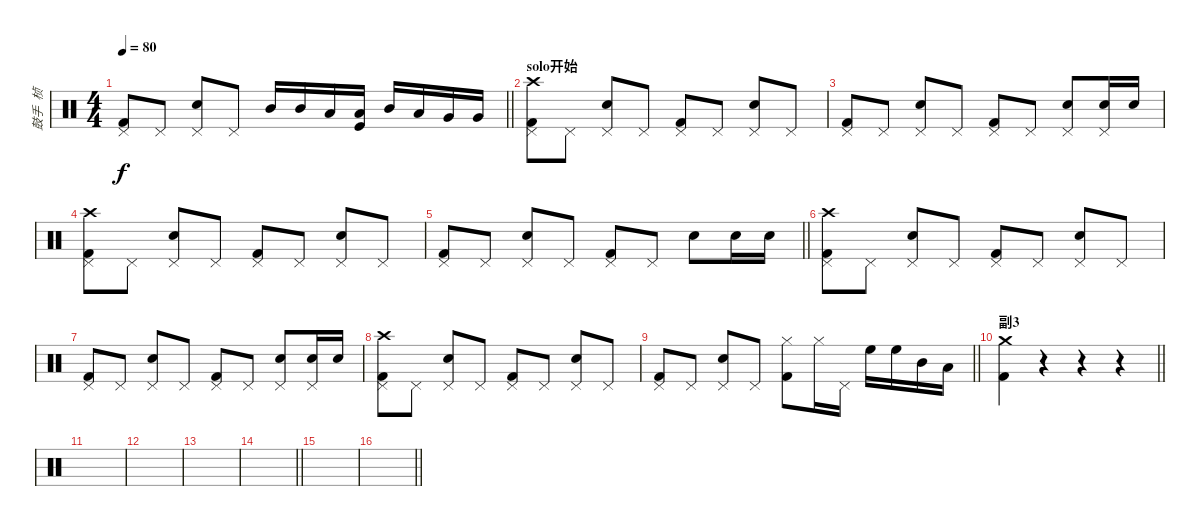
\track ("鼓手  桢" "鼓手  桢") {instrument percussion}
\staff {score}
\articulation defaults
\ts (4 4)
\tempo 80
\clef neutral
\barLineRight lightlight
\ks c
("Pedal Hi-Hat (hit)" "Kick (hit) 2").8{dy f} "Pedal Hi-Hat (hit)".8 ("Pedal Hi-Hat (hit)" "Snare (hit) 2").8 "Pedal Hi-Hat (hit)".8 "Mid Tom (hit)".16 "Mid Tom (hit)".16 "Low Tom (hit)".16 ("Low Tom (hit)" "Kick (hit)").16 "Mid Tom (hit)".16 "Low Tom (hit)".16 "Very Low Tom (hit)".16 "Very Low Tom (hit)".16 |
\section ("" "solo开始")
("Pedal Hi-Hat (hit)" "Kick (hit) 2" "Crash high (hit)").8 "Pedal Hi-Hat (hit)".8 ("Pedal Hi-Hat (hit)" "Snare (hit) 2").8 "Pedal Hi-Hat (hit)".8 ("Pedal Hi-Hat (hit)" "Kick (hit) 2").8 "Pedal Hi-Hat (hit)".8 ("Pedal Hi-Hat (hit)" "Snare (hit) 2").8 "Pedal Hi-Hat (hit)".8 |
("Pedal Hi-Hat (hit)" "Kick (hit) 2").8 "Pedal Hi-Hat (hit)".8 ("Pedal Hi-Hat (hit)" "Snare (hit) 2").8 "Pedal Hi-Hat (hit)".8 ("Pedal Hi-Hat (hit)" "Kick (hit) 2").8 "Pedal Hi-Hat (hit)".8 ("Pedal Hi-Hat (hit)" "Snare (hit) 2").8 ("Pedal Hi-Hat (hit)" "Snare (hit) 2").16 "Snare (hit) 2".16 |
("Pedal Hi-Hat (hit)" "Kick (hit) 2" "Crash high (hit)").8 "Pedal Hi-Hat (hit)".8 ("Pedal Hi-Hat (hit)" "Snare (hit) 2").8 "Pedal Hi-Hat (hit)".8 ("Pedal Hi-Hat (hit)" "Kick (hit) 2").8 "Pedal Hi-Hat (hit)".8 ("Pedal Hi-Hat (hit)" "Snare (hit) 2").8 "Pedal Hi-Hat (hit)".8 |
\barLineRight lightlight
("Pedal Hi-Hat (hit)" "Kick (hit) 2").8 "Pedal Hi-Hat (hit)".8 ("Pedal Hi-Hat (hit)" "Snare (hit) 2").8 "Pedal Hi-Hat (hit)".8 ("Pedal Hi-Hat (hit)" "Kick (hit) 2").8 "Pedal Hi-Hat (hit)".8 "Snare (hit) 2".8 "Snare (hit) 2".16 "Snare (hit) 2".16 |
("Pedal Hi-Hat (hit)" "Kick (hit) 2" "Crash high (hit)").8 "Pedal Hi-Hat (hit)".8 ("Pedal Hi-Hat (hit)" "Snare (hit) 2").8 "Pedal Hi-Hat (hit)".8 ("Pedal Hi-Hat (hit)" "Kick (hit) 2").8 "Pedal Hi-Hat (hit)".8 ("Pedal Hi-Hat (hit)" "Snare (hit) 2").8 "Pedal Hi-Hat (hit)".8 |
("Pedal Hi-Hat (hit)" "Kick (hit) 2").8 "Pedal Hi-Hat (hit)".8 ("Pedal Hi-Hat (hit)" "Snare (hit) 2").8 "Pedal Hi-Hat (hit)".8 ("Pedal Hi-Hat (hit)" "Kick (hit) 2").8 "Pedal Hi-Hat (hit)".8 ("Pedal Hi-Hat (hit)" "Snare (hit) 2").8 ("Pedal Hi-Hat (hit)" "Snare (hit) 2").16 "Snare (hit) 2".16 |
("Pedal Hi-Hat (hit)" "Kick (hit) 2" "Crash high (hit)").8 "Pedal Hi-Hat (hit)".8 ("Pedal Hi-Hat (hit)" "Snare (hit) 2").8 "Pedal Hi-Hat (hit)".8 ("Pedal Hi-Hat (hit)" "Kick (hit) 2").8 "Pedal Hi-Hat (hit)".8 ("Pedal Hi-Hat (hit)" "Snare (hit) 2").8 "Pedal Hi-Hat (hit)".8 |
\barLineRight lightlight
("Pedal Hi-Hat (hit)" "Kick (hit) 2").8 "Pedal Hi-Hat (hit)".8 ("Pedal Hi-Hat (hit)" "Snare (hit) 2").8 "Pedal Hi-Hat (hit)".8 ("Hi-Hat (closed)" "Kick (hit) 2").8 "Hi-Hat (closed)".16 "Pedal Hi-Hat (hit)".16 "High Floor Tom (hit)".16 "High Floor Tom (hit)".16 "Mid Tom (hit)".16 "Low Tom (hit)".16 |
\section ("" "副3")
\barLineRight lightlight
("Crash medium (hit)" "Kick (hit) 2").4 r.4 r.4 r.4 |
|
|
|
\barLineRight lightlight
|
|
\barLineRight lightlight
